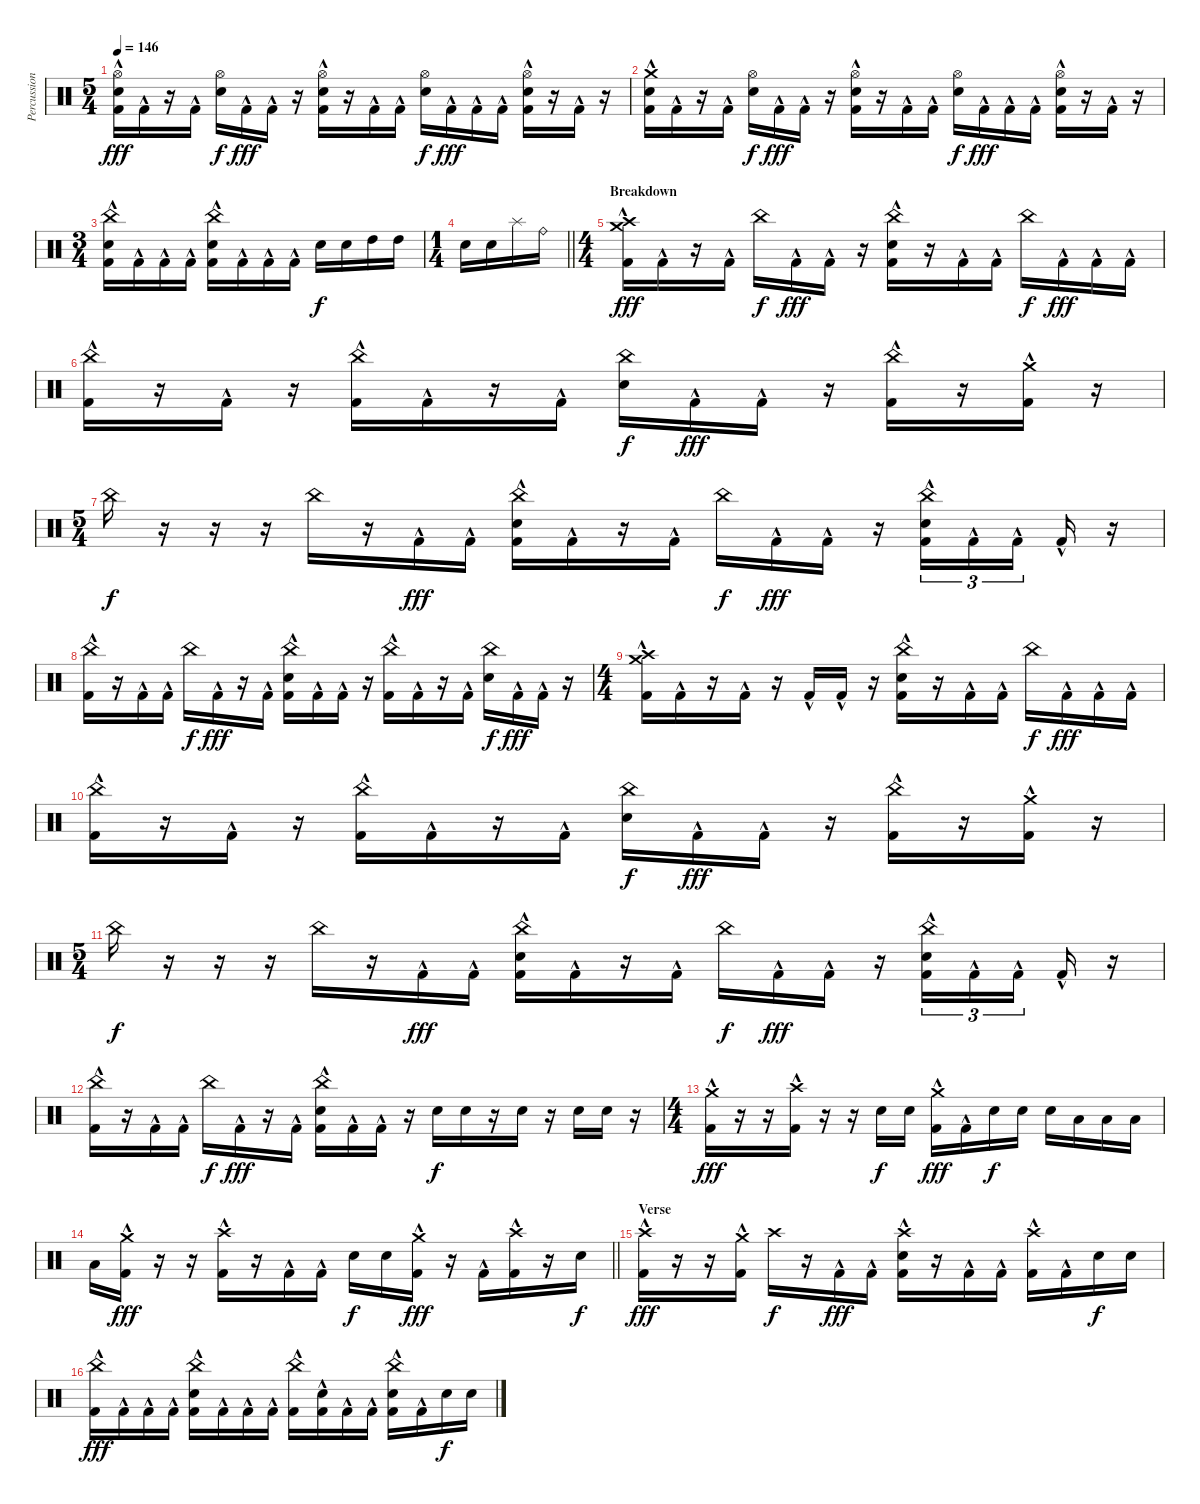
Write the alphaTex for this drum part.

\track ("Percussion" "Percussion") {instrument percussion}
\staff {score}
\articulation defaults
\ts (5 4)
\tempo 146
\clef neutral
\ks aminor
("Kick (hit) 2"{hac} "Electric Snare (hit)" "Hi-Hat (open)").16{dy fff} "Kick (hit) 2"{hac}.16 r.16 "Kick (hit) 2"{hac}.16 ("Electric Snare (hit)" "Hi-Hat (open)").16{dy f} "Kick (hit) 2"{hac}.16{dy fff} "Kick (hit) 2"{hac}.16 r.16 ("Kick (hit) 2"{hac} "Electric Snare (hit)" "Hi-Hat (open)").16 r.16 "Kick (hit) 2"{hac}.16 "Kick (hit) 2"{hac}.16 ("Electric Snare (hit)" "Hi-Hat (open)").16{dy f} "Kick (hit) 2"{hac}.16{dy fff} "Kick (hit) 2"{hac}.16 "Kick (hit) 2"{hac}.16 ("Kick (hit) 2"{hac} "Electric Snare (hit)" "Hi-Hat (open)").16 r.16 "Kick (hit) 2"{hac}.16 r.16 |
("Kick (hit) 2"{hac} "Electric Snare (hit)" "Crash medium (hit)").16 "Kick (hit) 2"{hac}.16 r.16 "Kick (hit) 2"{hac}.16 ("Electric Snare (hit)" "Hi-Hat (open)").16{dy f} "Kick (hit) 2"{hac}.16{dy fff} "Kick (hit) 2"{hac}.16 r.16 ("Kick (hit) 2"{hac} "Electric Snare (hit)" "Hi-Hat (open)").16 r.16 "Kick (hit) 2"{hac}.16 "Kick (hit) 2"{hac}.16 ("Electric Snare (hit)" "Hi-Hat (open)").16{dy f} "Kick (hit) 2"{hac}.16{dy fff} "Kick (hit) 2"{hac}.16 "Kick (hit) 2"{hac}.16 ("Kick (hit) 2"{hac} "Electric Snare (hit)" "Hi-Hat (open)").16 r.16 "Kick (hit) 2"{hac}.16 r.16 |
\ts (3 4)
("Kick (hit) 2"{hac} "Electric Snare (hit)" "China (hit)").16 "Kick (hit) 2"{hac}.16 "Kick (hit) 2"{hac}.16 "Kick (hit) 2"{hac}.16 ("Kick (hit) 2"{hac} "Electric Snare (hit)" "China (hit)").16 "Kick (hit) 2"{hac}.16 "Kick (hit) 2"{hac}.16 "Kick (hit) 2"{hac}.16 "Electric Snare (hit)".16{dy f} "Electric Snare (hit)".16 "High Tom (hit)".16 "High Tom (hit)".16 |
\ts (1 4)
\barLineRight lightlight "Electric Snare (hit)".16 "Electric Snare (hit)".16 "Splash (hit)".16 "Ride (bell)".16
|
\ts (4 4)
\section ("" "Breakdown")
("Kick (hit) 2"{hac} "Crash high (hit)" "Crash medium (hit)").16{dy fff} "Kick (hit) 2"{hac}.16 r.16 "Kick (hit) 2"{hac}.16 "China (hit)".16{dy f} "Kick (hit) 2"{hac}.16{dy fff} "Kick (hit) 2"{hac}.16 r.16 ("Kick (hit) 2"{hac} "Electric Snare (hit)" "China (hit)").16 r.16 "Kick (hit) 2"{hac}.16 "Kick (hit) 2"{hac}.16 "China (hit)".16{dy f} "Kick (hit) 2"{hac}.16{dy fff} "Kick (hit) 2"{hac}.16 "Kick (hit) 2"{hac}.16 |
("Kick (hit) 2"{hac} "China (hit)").16 r.16 "Kick (hit) 2"{hac}.16 r.16 ("Kick (hit) 2"{hac} "China (hit)").16 "Kick (hit) 2"{hac}.16 r.16 "Kick (hit) 2"{hac}.16 ("Electric Snare (hit)" "China (hit)").16{dy f} "Kick (hit) 2"{hac}.16{dy fff} "Kick (hit) 2"{hac}.16 r.16 ("Kick (hit) 2"{hac} "China (hit)").16 r.16 ("Kick (hit) 2"{hac} "Crash medium (hit)").16 r.16 |
\ts (5 4)
"China (hit)".16{dy f} r.16 r.16 r.16 "China (hit)".16 r.16 "Kick (hit) 2"{hac}.16{dy fff} "Kick (hit) 2"{hac}.16 ("Kick (hit) 2"{hac} "Electric Snare (hit)" "China (hit)").16 "Kick (hit) 2"{hac}.16 r.16 "Kick (hit) 2"{hac}.16 "China (hit)".16{dy f} "Kick (hit) 2"{hac}.16{dy fff} "Kick (hit) 2"{hac}.16 r.16 ("Kick (hit) 2"{hac} "Electric Snare (hit)" "China (hit)").16{tu (3 2)} "Kick (hit) 2"{hac}.16{tu (3 2)} "Kick (hit) 2"{hac}.16{tu (3 2) beam splitsecondary} "Kick (hit) 2"{hac}.16 r.16 |
("Kick (hit) 2"{hac} "China (hit)").16 r.16 "Kick (hit) 2"{hac}.16 "Kick (hit) 2"{hac}.16 "China (hit)".16{dy f} "Kick (hit) 2"{hac}.16{dy fff} r.16 "Kick (hit) 2"{hac}.16 ("Kick (hit) 2"{hac} "Electric Snare (hit)" "China (hit)").16 "Kick (hit) 2"{hac}.16 "Kick (hit) 2"{hac}.16 r.16 ("Kick (hit) 2"{hac} "China (hit)").16 "Kick (hit) 2"{hac}.16 r.16 "Kick (hit) 2"{hac}.16 ("Electric Snare (hit)" "China (hit)").16{dy f} "Kick (hit) 2"{hac}.16{dy fff} "Kick (hit) 2"{hac}.16 r.16 |
\ts (4 4)
("Kick (hit) 2"{hac} "Crash high (hit)" "Crash medium (hit)").16 "Kick (hit) 2"{hac}.16 r.16 "Kick (hit) 2"{hac}.16 r.16 "Kick (hit) 2"{hac}.16 "Kick (hit) 2"{hac}.16 r.16 ("Kick (hit) 2"{hac} "Electric Snare (hit)" "China (hit)").16 r.16 "Kick (hit) 2"{hac}.16 "Kick (hit) 2"{hac}.16 "China (hit)".16{dy f} "Kick (hit) 2"{hac}.16{dy fff} "Kick (hit) 2"{hac}.16 "Kick (hit) 2"{hac}.16 |
("Kick (hit) 2"{hac} "China (hit)").16 r.16 "Kick (hit) 2"{hac}.16 r.16 ("Kick (hit) 2"{hac} "China (hit)").16 "Kick (hit) 2"{hac}.16 r.16 "Kick (hit) 2"{hac}.16 ("Electric Snare (hit)" "China (hit)").16{dy f} "Kick (hit) 2"{hac}.16{dy fff} "Kick (hit) 2"{hac}.16 r.16 ("Kick (hit) 2"{hac} "China (hit)").16 r.16 ("Kick (hit) 2"{hac} "Crash medium (hit)").16 r.16 |
\ts (5 4)
"China (hit)".16{dy f} r.16 r.16 r.16 "China (hit)".16 r.16 "Kick (hit) 2"{hac}.16{dy fff} "Kick (hit) 2"{hac}.16 ("Kick (hit) 2"{hac} "Electric Snare (hit)" "China (hit)").16 "Kick (hit) 2"{hac}.16 r.16 "Kick (hit) 2"{hac}.16 "China (hit)".16{dy f} "Kick (hit) 2"{hac}.16{dy fff} "Kick (hit) 2"{hac}.16 r.16 ("Kick (hit) 2"{hac} "Electric Snare (hit)" "China (hit)").16{tu (3 2)} "Kick (hit) 2"{hac}.16{tu (3 2)} "Kick (hit) 2"{hac}.16{tu (3 2) beam splitsecondary} "Kick (hit) 2"{hac}.16 r.16 |
("Kick (hit) 2"{hac} "China (hit)").16 r.16 "Kick (hit) 2"{hac}.16 "Kick (hit) 2"{hac}.16 "China (hit)".16{dy f} "Kick (hit) 2"{hac}.16{dy fff} r.16 "Kick (hit) 2"{hac}.16 ("Kick (hit) 2"{hac} "Electric Snare (hit)" "China (hit)").16 "Kick (hit) 2"{hac}.16 "Kick (hit) 2"{hac}.16 r.16 "Electric Snare (hit)".16{dy f} "Electric Snare (hit)".16 r.16 "Electric Snare (hit)".16 r.16 "Electric Snare (hit)".16 "Electric Snare (hit)".16 r.16 |
\ts (4 4)
("Kick (hit) 2"{hac} "Crash medium (hit)").16{dy fff} r.16 r.16 ("Kick (hit) 2"{hac} "Crash high (hit)").16 r.16 r.16 "Electric Snare (hit)".16{dy f} "Electric Snare (hit)".16 ("Kick (hit) 2"{hac} "Crash medium (hit)").16{dy fff} "Kick (hit) 2"{hac}.16 "Electric Snare (hit)".16{dy f} "Electric Snare (hit)".16 "Electric Snare (hit)".16 "Low Tom (hit)".16 "Low Tom (hit)".16 "Low Floor Tom (hit)".16 |
\barLineRight lightlight "Low Floor Tom (hit)".16
("Kick (hit) 2"{hac} "Crash medium (hit)").16{dy fff} r.16 r.16 ("Kick (hit) 2"{hac} "Crash high (hit)").16 r.16 "Kick (hit) 2"{hac}.16 "Kick (hit) 2"{hac}.16 "Electric Snare (hit)".16{dy f} "Electric Snare (hit)".16 ("Kick (hit) 2"{hac} "Crash medium (hit)").16{dy fff} r.16 "Kick (hit) 2"{hac}.16 ("Kick (hit) 2"{hac} "Crash high (hit)").16 r.16 "Electric Snare (hit)".16{dy f} |
\section ("" "Verse")
("Kick (hit) 2"{hac} "Crash high (hit)").16{dy fff} r.16 r.16 ("Kick (hit) 2"{hac} "Crash medium (hit)").16 "Crash high (hit)".16{dy f} r.16 "Kick (hit) 2"{hac}.16{dy fff} "Kick (hit) 2"{hac}.16 ("Kick (hit) 2"{hac} "Electric Snare (hit)" "Crash high (hit)").16 r.16 "Kick (hit) 2"{hac}.16 "Kick (hit) 2"{hac}.16 ("Kick (hit) 2"{hac} "Crash high (hit)").16 "Kick (hit) 2"{hac}.16 "Electric Snare (hit)".16{dy f} "Electric Snare (hit)".16 |
("Kick (hit) 2"{hac} "China (hit)").16{dy fff} "Kick (hit) 2"{hac}.16 "Kick (hit) 2"{hac}.16 "Kick (hit) 2"{hac}.16 ("Kick (hit) 2"{hac} "China (hit)" "Electric Snare (hit)").16 "Kick (hit) 2"{hac}.16 "Kick (hit) 2"{hac}.16 "Kick (hit) 2"{hac}.16 ("Kick (hit) 2"{hac} "China (hit)").16 ("Kick (hit) 2"{hac} "Electric Snare (hit)").16 "Kick (hit) 2"{hac}.16 "Kick (hit) 2"{hac}.16 ("Kick (hit) 2"{hac} "China (hit)" "Electric Snare (hit)").16 "Kick (hit) 2"{hac}.16 "Electric Snare (hit)".16{dy f} "Electric Snare (hit)".16
